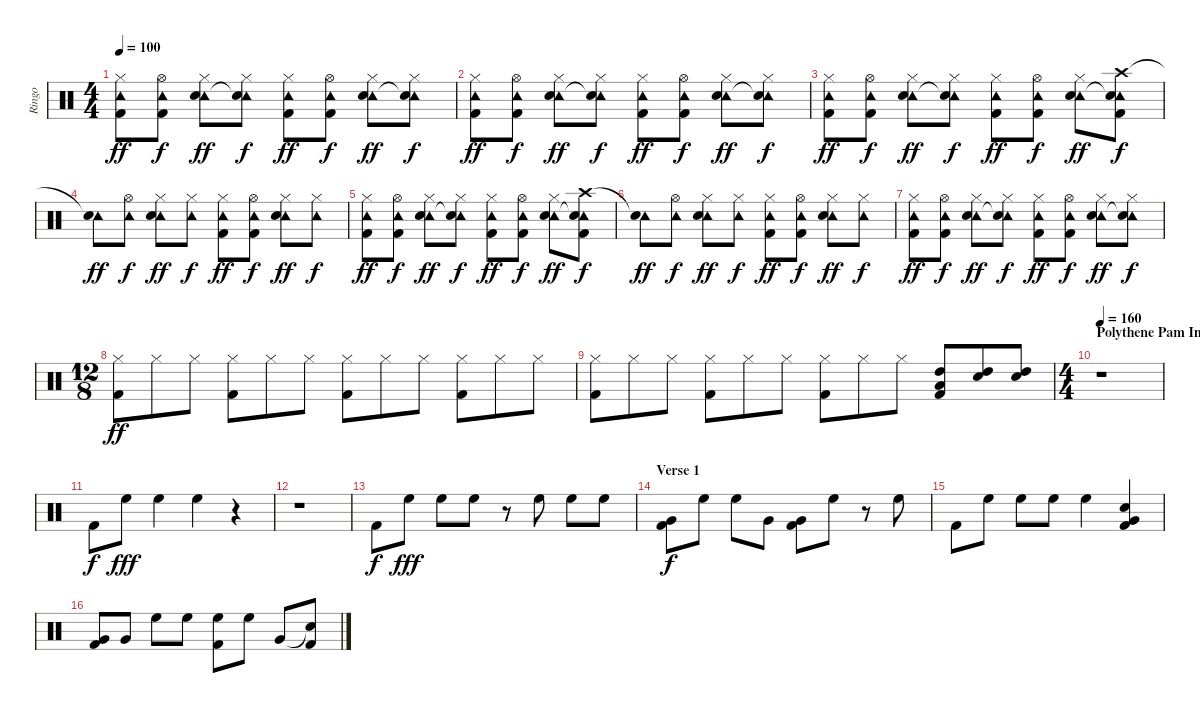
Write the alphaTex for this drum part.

\track ("Ringo" "Ringo") {instrument percussion}
\staff {score}
\articulation defaults
\ts (4 4)
\tempo 100
\clef neutral
\ks c
("Tambourine (hit)" "Hi-Hat (closed)" "Kick (hit) 2").8{dy ff} ("Tambourine (hit)" "Hi-Hat (open)" "Kick (hit) 2").8{dy f} ("Tambourine (hit)" "Hi-Hat (closed)" "Snare (hit) 2").8{dy ff} ("Tambourine (hit)" "Hi-Hat (closed)" "Snare (hit)"{t}).8{dy f} ("Tambourine (hit)" "Hi-Hat (closed)" "Kick (hit) 2").8{dy ff} ("Tambourine (hit)" "Hi-Hat (open)" "Kick (hit) 2").8{dy f} ("Tambourine (hit)" "Hi-Hat (closed)" "Snare (hit) 2").8{dy ff} ("Tambourine (hit)" "Hi-Hat (closed)" "Snare (hit)"{t}).8{dy f} |
("Tambourine (hit)" "Hi-Hat (closed)" "Kick (hit) 2").8{dy ff} ("Tambourine (hit)" "Hi-Hat (open)" "Kick (hit) 2").8{dy f} ("Tambourine (hit)" "Hi-Hat (closed)" "Snare (hit) 2").8{dy ff} ("Tambourine (hit)" "Hi-Hat (closed)" "Snare (hit)"{t}).8{dy f} ("Tambourine (hit)" "Hi-Hat (closed)" "Kick (hit) 2").8{dy ff} ("Tambourine (hit)" "Hi-Hat (open)" "Kick (hit) 2").8{dy f} ("Tambourine (hit)" "Hi-Hat (closed)" "Snare (hit) 2").8{dy ff} ("Tambourine (hit)" "Hi-Hat (closed)" "Snare (hit)"{t}).8{dy f} |
("Tambourine (hit)" "Hi-Hat (closed)" "Kick (hit) 2").8{dy ff} ("Tambourine (hit)" "Hi-Hat (open)" "Kick (hit) 2").8{dy f} ("Tambourine (hit)" "Hi-Hat (closed)" "Snare (hit) 2").8{dy ff} ("Tambourine (hit)" "Hi-Hat (closed)" "Snare (hit)"{t}).8{dy f} ("Tambourine (hit)" "Hi-Hat (closed)" "Kick (hit) 2").8{dy ff} ("Tambourine (hit)" "Hi-Hat (open)" "Kick (hit) 2").8{dy f} ("Tambourine (hit)" "Hi-Hat (closed)" "Snare (hit) 2").8{dy ff} ("Tambourine (hit)" "Crash high (hit)" "Snare (hit)"{t} "Kick (hit) 2").8{dy f} |
("Tambourine (hit)" "Snare (hit)"{t}).8{dy ff} ("Tambourine (hit)" "Hi-Hat (open)").8{dy f} ("Tambourine (hit)" "Hi-Hat (closed)" "Snare (hit) 2").8{dy ff} ("Tambourine (hit)" "Hi-Hat (closed)").8{dy f} ("Tambourine (hit)" "Hi-Hat (closed)" "Kick (hit) 2").8{dy ff} ("Tambourine (hit)" "Hi-Hat (open)" "Kick (hit) 2").8{dy f} ("Tambourine (hit)" "Hi-Hat (closed)" "Snare (hit) 2").8{dy ff} ("Tambourine (hit)" "Hi-Hat (closed)").8{dy f} |
("Tambourine (hit)" "Hi-Hat (closed)" "Kick (hit) 2").8{dy ff} ("Tambourine (hit)" "Hi-Hat (open)" "Kick (hit) 2").8{dy f} ("Tambourine (hit)" "Hi-Hat (closed)" "Snare (hit) 2").8{dy ff} ("Tambourine (hit)" "Hi-Hat (closed)" "Snare (hit)"{t}).8{dy f} ("Tambourine (hit)" "Hi-Hat (closed)" "Kick (hit) 2").8{dy ff} ("Tambourine (hit)" "Hi-Hat (open)" "Kick (hit) 2").8{dy f} ("Tambourine (hit)" "Hi-Hat (closed)" "Snare (hit) 2").8{dy ff} ("Tambourine (hit)" "Crash high (hit)" "Snare (hit)"{t} "Kick (hit) 2").8{dy f} |
("Tambourine (hit)" "Snare (hit)"{t}).8{dy ff} ("Tambourine (hit)" "Hi-Hat (open)").8{dy f} ("Tambourine (hit)" "Hi-Hat (closed)" "Snare (hit) 2").8{dy ff} ("Tambourine (hit)" "Hi-Hat (closed)").8{dy f} ("Tambourine (hit)" "Hi-Hat (closed)" "Kick (hit) 2").8{dy ff} ("Tambourine (hit)" "Hi-Hat (open)" "Kick (hit) 2").8{dy f} ("Tambourine (hit)" "Hi-Hat (closed)" "Snare (hit) 2").8{dy ff} ("Tambourine (hit)" "Hi-Hat (closed)").8{dy f} |
("Tambourine (hit)" "Hi-Hat (closed)" "Kick (hit) 2").8{dy ff} ("Tambourine (hit)" "Hi-Hat (open)" "Kick (hit) 2").8{dy f} ("Tambourine (hit)" "Hi-Hat (closed)" "Snare (hit) 2").8{dy ff} ("Tambourine (hit)" "Hi-Hat (closed)" "Snare (hit)"{t}).8{dy f} ("Tambourine (hit)" "Hi-Hat (closed)" "Kick (hit) 2").8{dy ff} ("Tambourine (hit)" "Hi-Hat (open)" "Kick (hit) 2").8{dy f} ("Tambourine (hit)" "Hi-Hat (closed)" "Snare (hit) 2").8{dy ff} ("Tambourine (hit)" "Hi-Hat (closed)" "Snare (hit)"{t}).8{dy f} |
\ts (12 8)
("Hi-Hat (closed)" "Kick (hit) 2").8{dy ff} "Hi-Hat (closed)".8 "Hi-Hat (closed)".8 ("Hi-Hat (closed)" "Kick (hit) 2").8 "Hi-Hat (closed)".8 "Hi-Hat (closed)".8 ("Hi-Hat (closed)" "Kick (hit) 2").8 "Hi-Hat (closed)".8 "Hi-Hat (closed)".8 ("Hi-Hat (closed)" "Kick (hit) 2").8 "Hi-Hat (closed)".8 "Hi-Hat (closed)".8 |
("Hi-Hat (closed)" "Kick (hit) 2").8 "Hi-Hat (closed)".8 "Hi-Hat (closed)".8 ("Hi-Hat (closed)" "Kick (hit) 2").8 "Hi-Hat (closed)".8 "Hi-Hat (closed)".8 ("Hi-Hat (closed)" "Kick (hit) 2").8 "Hi-Hat (closed)".8 "Hi-Hat (closed)".8 ("High Tom (hit)" "Low Tom (hit)" "Kick (hit) 2").8 ("High Tom (hit)" "Snare (hit) 2").8 ("High Tom (hit)" "Snare (hit) 2").8 |
\ts (4 4)
\section ("" "Polythene Pam Intro")
\tempo 160
r.1 |
"Kick (hit) 2".8{dy f} "High Floor Tom (hit)".8{dy fff} "High Floor Tom (hit)".4 "High Floor Tom (hit)".4 r.4 |
r.1 |
"Kick (hit) 2".8{dy f} "High Floor Tom (hit)".8{dy fff} "High Floor Tom (hit)".8 "High Floor Tom (hit)".8 r.8 "High Floor Tom (hit)".8 "High Floor Tom (hit)".8 "High Floor Tom (hit)".8 |
\section ("" "Verse 1")
("Very Low Tom (hit)" "Kick (hit) 2").8{dy f} "High Floor Tom (hit)".8 "High Floor Tom (hit)".8 "Very Low Tom (hit)".8 ("Very Low Tom (hit)" "Kick (hit) 2").8 "High Floor Tom (hit)".8 r.8 "High Floor Tom (hit)".8 |
"Kick (hit) 2".8 "High Floor Tom (hit)".8 "High Floor Tom (hit)".8 "High Floor Tom (hit)".8 "High Floor Tom (hit)".4 ("Very Low Tom (hit)" "Snare (hit) 2" "Kick (hit) 2").4 |
("Very Low Tom (hit)" "Kick (hit) 2").8 "Very Low Tom (hit)".8 "High Floor Tom (hit)".8 "High Floor Tom (hit)".8 ("High Floor Tom (hit)" "Kick (hit) 2").8 "High Floor Tom (hit)".8 "Very Low Tom (hit)".8 ("Snare (hit)"{t} "Kick (hit) 2").8
